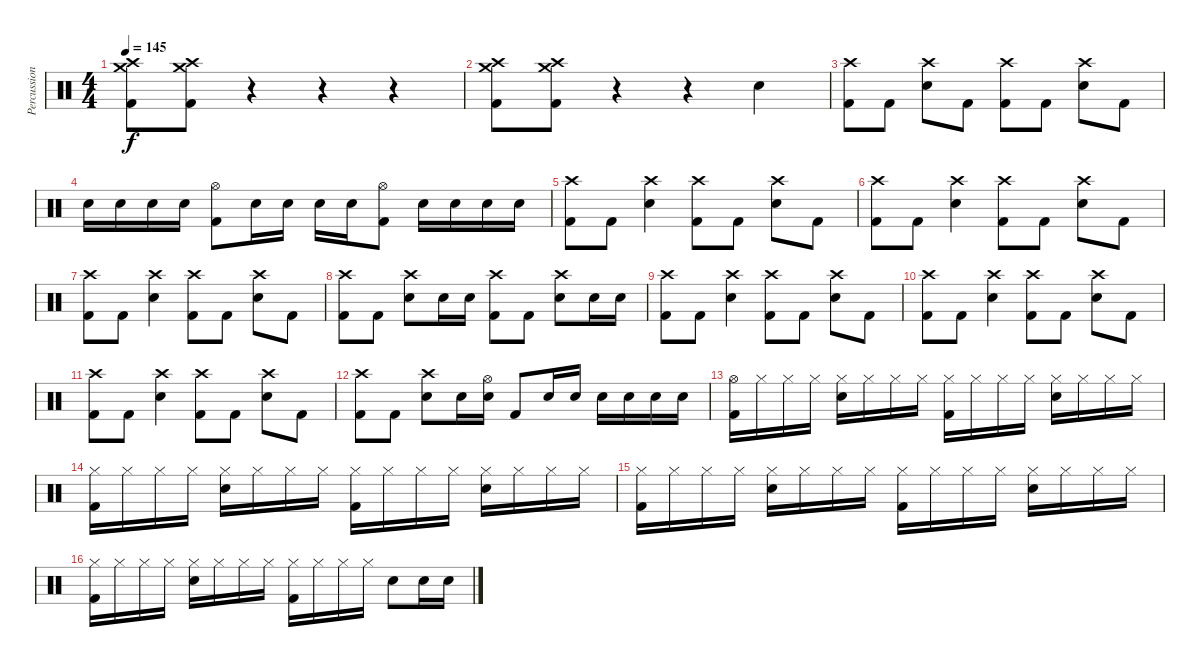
\track ("Percussion" "Percussion") {instrument percussion}
\staff {score}
\articulation defaults
\ts (4 4)
\tempo 145
\clef neutral
\ks c
("Crash medium (hit)" "Crash high (hit)" "Kick (hit) 2").8{dy f} ("Crash medium (hit)" "Crash high (hit)" "Kick (hit) 2").8 r.4 r.4 r.4 |
("Crash medium (hit)" "Crash high (hit)" "Kick (hit) 2").8 ("Crash medium (hit)" "Crash high (hit)" "Kick (hit) 2").8 r.4 r.4 "Electric Snare (hit)".4 |
("Crash high (hit)" "Kick (hit) 2").8 "Kick (hit) 2".8 ("Crash high (hit)" "Electric Snare (hit)").8 "Kick (hit) 2".8 ("Crash high (hit)" "Kick (hit) 2").8 "Kick (hit) 2".8 ("Crash high (hit)" "Electric Snare (hit)").8 "Kick (hit) 2".8 |
"Electric Snare (hit)".16 "Electric Snare (hit)".16 "Electric Snare (hit)".16 "Electric Snare (hit)".16 ("Hi-Hat (open)" "Kick (hit) 2").8 "Electric Snare (hit)".16 "Electric Snare (hit)".16 "Electric Snare (hit)".16 "Electric Snare (hit)".16 ("Hi-Hat (open)" "Kick (hit) 2").8 "Electric Snare (hit)".16 "Electric Snare (hit)".16 "Electric Snare (hit)".16 "Electric Snare (hit)".16 |
("Crash high (hit)" "Kick (hit) 2").8 "Kick (hit) 2".8 ("Crash high (hit)" "Electric Snare (hit)").4 ("Crash high (hit)" "Kick (hit) 2").8 "Kick (hit) 2".8 ("Crash high (hit)" "Electric Snare (hit)").8 "Kick (hit) 2".8 |
("Crash high (hit)" "Kick (hit) 2").8 "Kick (hit) 2".8 ("Crash high (hit)" "Electric Snare (hit)").4 ("Crash high (hit)" "Kick (hit) 2").8 "Kick (hit) 2".8 ("Crash high (hit)" "Electric Snare (hit)").8 "Kick (hit) 2".8 |
("Crash high (hit)" "Kick (hit) 2").8 "Kick (hit) 2".8 ("Crash high (hit)" "Electric Snare (hit)").4 ("Crash high (hit)" "Kick (hit) 2").8 "Kick (hit) 2".8 ("Crash high (hit)" "Electric Snare (hit)").8 "Kick (hit) 2".8 |
("Crash high (hit)" "Kick (hit) 2").8 "Kick (hit) 2".8 ("Crash high (hit)" "Electric Snare (hit)").8 "Electric Snare (hit)".16 "Electric Snare (hit)".16 ("Crash high (hit)" "Kick (hit) 2").8 "Kick (hit) 2".8 ("Crash high (hit)" "Electric Snare (hit)").8 "Electric Snare (hit)".16 "Electric Snare (hit)".16 |
("Crash high (hit)" "Kick (hit) 2").8 "Kick (hit) 2".8 ("Crash high (hit)" "Electric Snare (hit)").4 ("Crash high (hit)" "Kick (hit) 2").8 "Kick (hit) 2".8 ("Crash high (hit)" "Electric Snare (hit)").8 "Kick (hit) 2".8 |
("Crash high (hit)" "Kick (hit) 2").8 "Kick (hit) 2".8 ("Crash high (hit)" "Electric Snare (hit)").4 ("Crash high (hit)" "Kick (hit) 2").8 "Kick (hit) 2".8 ("Crash high (hit)" "Electric Snare (hit)").8 "Kick (hit) 2".8 |
("Crash high (hit)" "Kick (hit) 2").8 "Kick (hit) 2".8 ("Crash high (hit)" "Electric Snare (hit)").4 ("Crash high (hit)" "Kick (hit) 2").8 "Kick (hit) 2".8 ("Crash high (hit)" "Electric Snare (hit)").8 "Kick (hit) 2".8 |
("Crash high (hit)" "Kick (hit) 2").8 "Kick (hit) 2".8 ("Crash high (hit)" "Electric Snare (hit)").8 "Electric Snare (hit)".16 ("Hi-Hat (open)" "Electric Snare (hit)").16 "Kick (hit) 2".8 "Electric Snare (hit)".16 "Electric Snare (hit)".16 "Electric Snare (hit)".16 "Electric Snare (hit)".16 "Electric Snare (hit)".16 "Electric Snare (hit)".16 |
("Hi-Hat (open)" "Kick (hit) 2").16 "Hi-Hat (closed)".16 "Hi-Hat (closed)".16 "Hi-Hat (closed)".16 ("Hi-Hat (closed)" "Electric Snare (hit)").16 "Hi-Hat (closed)".16 "Hi-Hat (closed)".16 "Hi-Hat (closed)".16 ("Hi-Hat (closed)" "Kick (hit) 2").16 "Hi-Hat (closed)".16 "Hi-Hat (closed)".16 "Hi-Hat (closed)".16 ("Hi-Hat (closed)" "Electric Snare (hit)").16 "Hi-Hat (closed)".16 "Hi-Hat (closed)".16 "Hi-Hat (closed)".16 |
("Hi-Hat (closed)" "Kick (hit) 2").16 "Hi-Hat (closed)".16 "Hi-Hat (closed)".16 "Hi-Hat (closed)".16 ("Hi-Hat (closed)" "Electric Snare (hit)").16 "Hi-Hat (closed)".16 "Hi-Hat (closed)".16 "Hi-Hat (closed)".16 ("Hi-Hat (closed)" "Kick (hit) 2").16 "Hi-Hat (closed)".16 "Hi-Hat (closed)".16 "Hi-Hat (closed)".16 ("Hi-Hat (closed)" "Electric Snare (hit)").16 "Hi-Hat (closed)".16 "Hi-Hat (closed)".16 "Hi-Hat (closed)".16 |
("Hi-Hat (closed)" "Kick (hit) 2").16 "Hi-Hat (closed)".16 "Hi-Hat (closed)".16 "Hi-Hat (closed)".16 ("Hi-Hat (closed)" "Electric Snare (hit)").16 "Hi-Hat (closed)".16 "Hi-Hat (closed)".16 "Hi-Hat (closed)".16 ("Hi-Hat (closed)" "Kick (hit) 2").16 "Hi-Hat (closed)".16 "Hi-Hat (closed)".16 "Hi-Hat (closed)".16 ("Hi-Hat (closed)" "Electric Snare (hit)").16 "Hi-Hat (closed)".16 "Hi-Hat (closed)".16 "Hi-Hat (closed)".16 |
("Hi-Hat (closed)" "Kick (hit) 2").16 "Hi-Hat (closed)".16 "Hi-Hat (closed)".16 "Hi-Hat (closed)".16 ("Hi-Hat (closed)" "Electric Snare (hit)").16 "Hi-Hat (closed)".16 "Hi-Hat (closed)".16 "Hi-Hat (closed)".16 ("Hi-Hat (closed)" "Kick (hit) 2").16 "Hi-Hat (closed)".16 "Hi-Hat (closed)".16 "Hi-Hat (closed)".16 "Electric Snare (hit)".8 "Electric Snare (hit)".16 "Electric Snare (hit)".16
